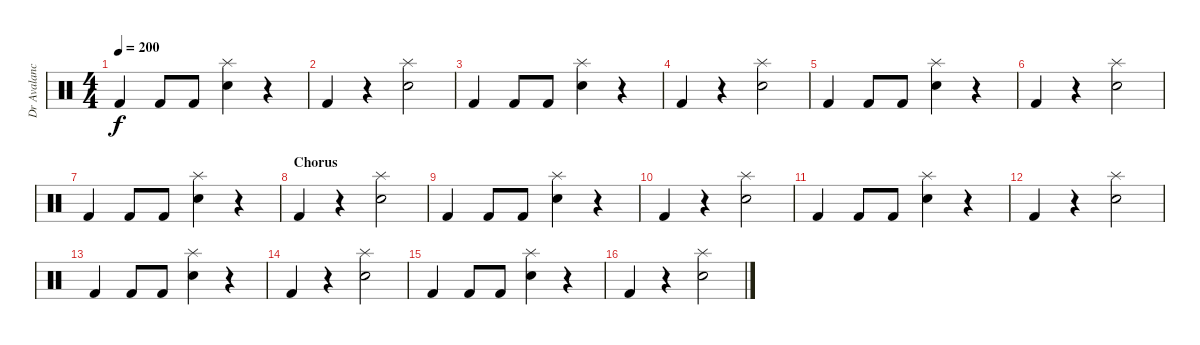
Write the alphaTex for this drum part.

\track ("Dr Avalanche" "Dr Avalanc") {instrument percussion}
\staff {score}
\articulation defaults
\ts (4 4)
\tempo 200
\clef neutral
\ks c "Kick (hit) 2".4{dy f} "Kick (hit) 2".8 "Kick (hit) 2".8
("Snare (hit) 2" "Splash (hit)").4 r.4 |
"Kick (hit) 2".4 r.4 ("Snare (hit) 2" "Splash (hit)").2 |
"Kick (hit) 2".4 "Kick (hit) 2".8 "Kick (hit) 2".8 ("Snare (hit) 2" "Splash (hit)").4 r.4 |
"Kick (hit) 2".4 r.4 ("Snare (hit) 2" "Splash (hit)").2 |
"Kick (hit) 2".4 "Kick (hit) 2".8 "Kick (hit) 2".8 ("Snare (hit) 2" "Splash (hit)").4 r.4 |
"Kick (hit) 2".4 r.4 ("Snare (hit) 2" "Splash (hit)").2 |
"Kick (hit) 2".4 "Kick (hit) 2".8 "Kick (hit) 2".8 ("Snare (hit) 2" "Splash (hit)").4 r.4 |
\section ("" "Chorus")
"Kick (hit) 2".4 r.4 ("Snare (hit) 2" "Splash (hit)").2 |
"Kick (hit) 2".4 "Kick (hit) 2".8 "Kick (hit) 2".8 ("Snare (hit) 2" "Splash (hit)").4 r.4 |
"Kick (hit) 2".4 r.4 ("Snare (hit) 2" "Splash (hit)").2 |
"Kick (hit) 2".4 "Kick (hit) 2".8 "Kick (hit) 2".8 ("Snare (hit) 2" "Splash (hit)").4 r.4 |
"Kick (hit) 2".4 r.4 ("Snare (hit) 2" "Splash (hit)").2 |
"Kick (hit) 2".4 "Kick (hit) 2".8 "Kick (hit) 2".8 ("Snare (hit) 2" "Splash (hit)").4 r.4 |
"Kick (hit) 2".4 r.4 ("Snare (hit) 2" "Splash (hit)").2 |
"Kick (hit) 2".4 "Kick (hit) 2".8 "Kick (hit) 2".8 ("Snare (hit) 2" "Splash (hit)").4 r.4 |
"Kick (hit) 2".4 r.4 ("Snare (hit) 2" "Splash (hit)").2
